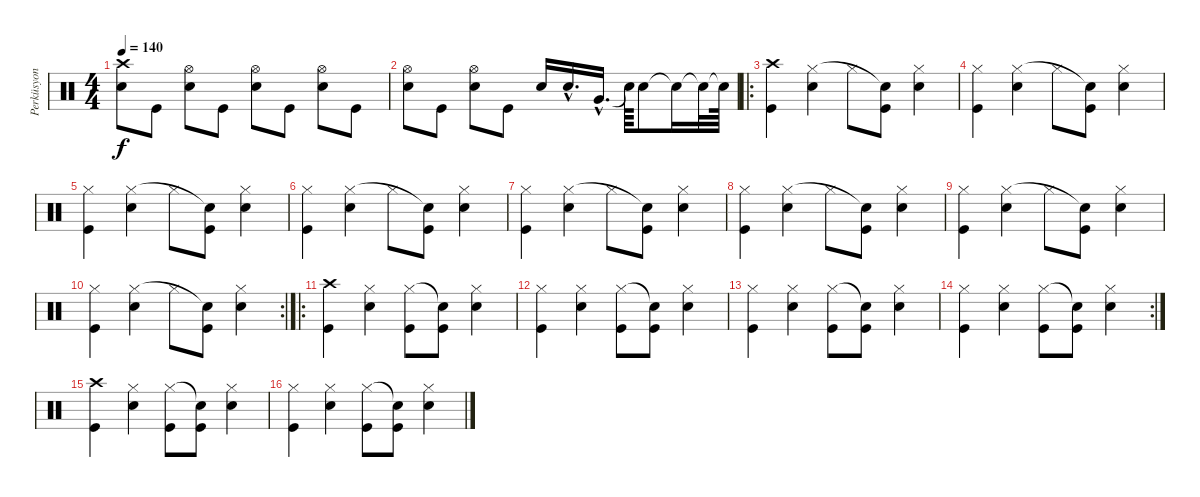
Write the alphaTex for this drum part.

\track ("Perküsyon" "Perküsyon") {instrument percussion}
\staff {score}
\articulation defaults
\ts (4 4)
\tempo 140
\clef neutral
\ks c
("Electric Snare (hit)" "Crash high (hit)").8{dy f} "Kick (hit)".8 ("Electric Snare (hit)" "Hi-Hat (open)").8 "Kick (hit)".8 ("Electric Snare (hit)" "Hi-Hat (open)").8 "Kick (hit)".8 ("Electric Snare (hit)" "Hi-Hat (open)").8 "Kick (hit)".8 |
("Electric Snare (hit)" "Hi-Hat (open)").8 "Kick (hit)".8 ("Electric Snare (hit)" "Hi-Hat (open)").8 "Kick (hit)".8 "Electric Snare (hit)".16 "Electric Snare (hit)"{hac}.16{d} "Very Low Tom (hit)"{hac}.16{d} "Snare (hit)"{t}.64 "Electric Snare (hit)".8 "Snare (hit)"{t}.16 "Snare (hit)"{t}.32 "Snare (hit)"{t}.64 |
\ro
("Kick (hit)" "Crash high (hit)").4 ("Electric Snare (hit)" "Hi-Hat (closed)").4 "Hi-Hat (closed)".8 ("Kick (hit)" "Snare (hit)"{t}).8 ("Electric Snare (hit)" "Hi-Hat (closed)").4 |
("Kick (hit)" "Hi-Hat (closed)").4 ("Electric Snare (hit)" "Hi-Hat (closed)").4 "Hi-Hat (closed)".8 ("Kick (hit)" "Snare (hit)"{t}).8 ("Electric Snare (hit)" "Hi-Hat (closed)").4 |
("Kick (hit)" "Hi-Hat (closed)").4 ("Electric Snare (hit)" "Hi-Hat (closed)").4 "Hi-Hat (closed)".8 ("Kick (hit)" "Snare (hit)"{t}).8 ("Electric Snare (hit)" "Hi-Hat (closed)").4 |
("Kick (hit)" "Hi-Hat (closed)").4 ("Electric Snare (hit)" "Hi-Hat (closed)").4 "Hi-Hat (closed)".8 ("Kick (hit)" "Snare (hit)"{t}).8 ("Electric Snare (hit)" "Hi-Hat (closed)").4 |
("Kick (hit)" "Hi-Hat (closed)").4 ("Electric Snare (hit)" "Hi-Hat (closed)").4 "Hi-Hat (closed)".8 ("Kick (hit)" "Snare (hit)"{t}).8 ("Electric Snare (hit)" "Hi-Hat (closed)").4 |
("Kick (hit)" "Hi-Hat (closed)").4 ("Electric Snare (hit)" "Hi-Hat (closed)").4 "Hi-Hat (closed)".8 ("Kick (hit)" "Snare (hit)"{t}).8 ("Electric Snare (hit)" "Hi-Hat (closed)").4 |
("Kick (hit)" "Hi-Hat (closed)").4 ("Electric Snare (hit)" "Hi-Hat (closed)").4 "Hi-Hat (closed)".8 ("Kick (hit)" "Snare (hit)"{t}).8 ("Electric Snare (hit)" "Hi-Hat (closed)").4 |
\rc 2
("Kick (hit)" "Hi-Hat (closed)").4 ("Electric Snare (hit)" "Hi-Hat (closed)").4 "Hi-Hat (closed)".8 ("Kick (hit)" "Snare (hit)"{t}).8 ("Electric Snare (hit)" "Hi-Hat (closed)").4 |
\ro
("Kick (hit)" "Crash high (hit)").4 ("Electric Snare (hit)" "Hi-Hat (closed)").4 ("Kick (hit)" "Hi-Hat (closed)").8 ("Kick (hit)" "Snare (hit)"{t}).8 ("Electric Snare (hit)" "Hi-Hat (closed)").4 |
("Kick (hit)" "Hi-Hat (closed)").4 ("Electric Snare (hit)" "Hi-Hat (closed)").4 ("Kick (hit)" "Hi-Hat (closed)").8 ("Kick (hit)" "Snare (hit)"{t}).8 ("Electric Snare (hit)" "Hi-Hat (closed)").4 |
("Kick (hit)" "Hi-Hat (closed)").4 ("Electric Snare (hit)" "Hi-Hat (closed)").4 ("Kick (hit)" "Hi-Hat (closed)").8 ("Kick (hit)" "Snare (hit)"{t}).8 ("Electric Snare (hit)" "Hi-Hat (closed)").4 |
\rc 2
("Kick (hit)" "Hi-Hat (closed)").4 ("Electric Snare (hit)" "Hi-Hat (closed)").4 ("Kick (hit)" "Hi-Hat (closed)").8 ("Kick (hit)" "Snare (hit)"{t}).8 ("Electric Snare (hit)" "Hi-Hat (closed)").4 |
("Kick (hit)" "Crash high (hit)").4 ("Electric Snare (hit)" "Hi-Hat (closed)").4 ("Kick (hit)" "Hi-Hat (closed)").8 ("Kick (hit)" "Snare (hit)"{t}).8 ("Electric Snare (hit)" "Hi-Hat (closed)").4 |
("Kick (hit)" "Hi-Hat (closed)").4 ("Electric Snare (hit)" "Hi-Hat (closed)").4 ("Kick (hit)" "Hi-Hat (closed)").8 ("Kick (hit)" "Snare (hit)"{t}).8 ("Electric Snare (hit)" "Hi-Hat (closed)").4
